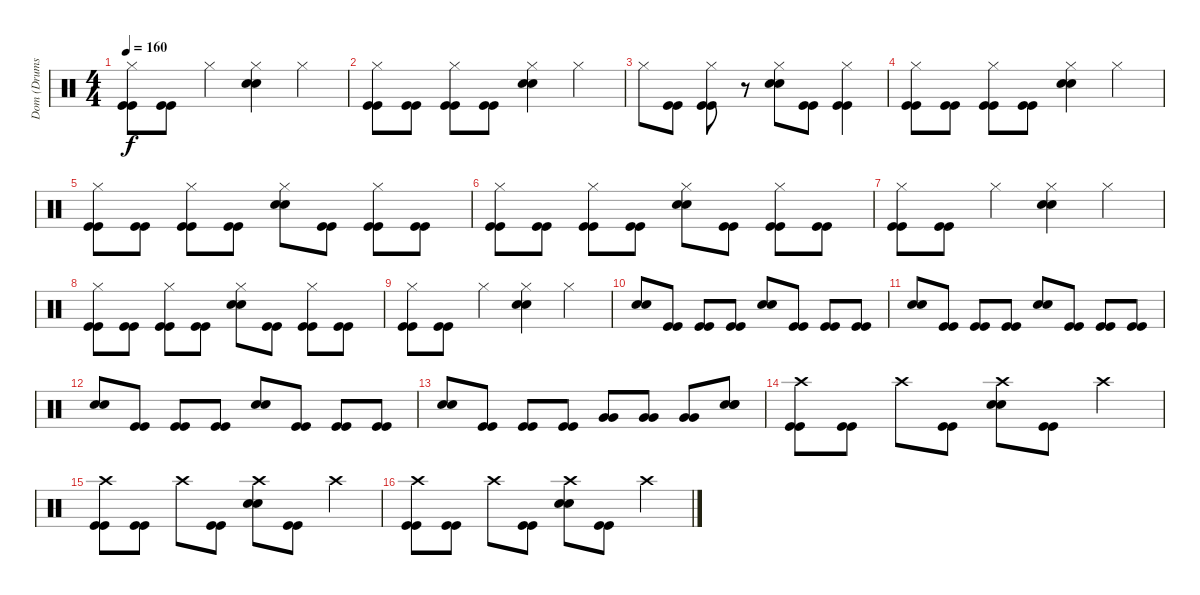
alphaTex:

\track ("Dom (Drums)" "Dom (Drums") {instrument percussion}
\staff {score}
\articulation defaults
\ts (4 4)
\tempo 160
\clef neutral
\ks c
("Hi-Hat (closed)" "Kick (hit)" "Kick (hit)").8{dy f} ("Kick (hit)" "Kick (hit)").8 "Hi-Hat (closed)".4 ("Hi-Hat (closed)" "Snare (hit) 2" "Snare (hit) 2").4 "Hi-Hat (closed)".4 |
("Hi-Hat (closed)" "Kick (hit)" "Kick (hit)").8 ("Kick (hit)" "Kick (hit)").8 ("Hi-Hat (closed)" "Kick (hit)" "Kick (hit)").8 ("Kick (hit)" "Kick (hit)").8 ("Hi-Hat (closed)" "Snare (hit) 2" "Snare (hit) 2").4 "Hi-Hat (closed)".4 |
"Hi-Hat (closed)".8 ("Kick (hit)" "Kick (hit)").8 ("Hi-Hat (closed)" "Kick (hit)" "Kick (hit)").8 r.8 ("Hi-Hat (closed)" "Snare (hit) 2" "Snare (hit) 2").8 ("Kick (hit)" "Kick (hit)").8 ("Hi-Hat (closed)" "Kick (hit)" "Kick (hit)").4 |
("Hi-Hat (closed)" "Kick (hit)" "Kick (hit)").8 ("Kick (hit)" "Kick (hit)").8 ("Hi-Hat (closed)" "Kick (hit)" "Kick (hit)").8 ("Kick (hit)" "Kick (hit)").8 ("Hi-Hat (closed)" "Snare (hit) 2" "Snare (hit) 2").4 "Hi-Hat (closed)".4 |
("Hi-Hat (closed)" "Kick (hit)" "Kick (hit)").8 ("Kick (hit)" "Kick (hit)").8 ("Hi-Hat (closed)" "Kick (hit)" "Kick (hit)").8 ("Kick (hit)" "Kick (hit)").8 ("Hi-Hat (closed)" "Snare (hit) 2" "Snare (hit) 2").8 ("Kick (hit)" "Kick (hit)").8 ("Hi-Hat (closed)" "Kick (hit)" "Kick (hit)").8 ("Kick (hit)" "Kick (hit)").8 |
("Hi-Hat (closed)" "Kick (hit)" "Kick (hit)").8 ("Kick (hit)" "Kick (hit)").8 ("Hi-Hat (closed)" "Kick (hit)" "Kick (hit)").8 ("Kick (hit)" "Kick (hit)").8 ("Hi-Hat (closed)" "Snare (hit) 2" "Snare (hit) 2").8 ("Kick (hit)" "Kick (hit)").8 ("Hi-Hat (closed)" "Kick (hit)" "Kick (hit)").8 ("Kick (hit)" "Kick (hit)").8 |
("Hi-Hat (closed)" "Kick (hit)" "Kick (hit)").8 ("Kick (hit)" "Kick (hit)").8 "Hi-Hat (closed)".4 ("Hi-Hat (closed)" "Snare (hit) 2" "Snare (hit) 2").4 "Hi-Hat (closed)".4 |
("Hi-Hat (closed)" "Kick (hit)" "Kick (hit)").8 ("Kick (hit)" "Kick (hit)").8 ("Hi-Hat (closed)" "Kick (hit)" "Kick (hit)").8 ("Kick (hit)" "Kick (hit)").8 ("Hi-Hat (closed)" "Snare (hit) 2" "Snare (hit) 2").8 ("Kick (hit)" "Kick (hit)").8 ("Hi-Hat (closed)" "Kick (hit)" "Kick (hit)").8 ("Kick (hit)" "Kick (hit)").8 |
("Hi-Hat (closed)" "Kick (hit)" "Kick (hit)").8 ("Kick (hit)" "Kick (hit)").8 "Hi-Hat (closed)".4 ("Hi-Hat (closed)" "Snare (hit) 2" "Snare (hit) 2").4 "Hi-Hat (closed)".4 |
("Snare (hit) 2" "Snare (hit) 2").8 ("Kick (hit)" "Kick (hit)").8 ("Kick (hit)" "Kick (hit)").8 ("Kick (hit)" "Kick (hit)").8 ("Snare (hit) 2" "Snare (hit) 2").8 ("Kick (hit)" "Kick (hit)").8 ("Kick (hit)" "Kick (hit)").8 ("Kick (hit)" "Kick (hit)").8 |
("Snare (hit) 2" "Snare (hit) 2").8 ("Kick (hit)" "Kick (hit)").8 ("Kick (hit)" "Kick (hit)").8 ("Kick (hit)" "Kick (hit)").8 ("Snare (hit) 2" "Snare (hit) 2").8 ("Kick (hit)" "Kick (hit)").8 ("Kick (hit)" "Kick (hit)").8 ("Kick (hit)" "Kick (hit)").8 |
("Snare (hit) 2" "Snare (hit) 2").8 ("Kick (hit)" "Kick (hit)").8 ("Kick (hit)" "Kick (hit)").8 ("Kick (hit)" "Kick (hit)").8 ("Snare (hit) 2" "Snare (hit) 2").8 ("Kick (hit)" "Kick (hit)").8 ("Kick (hit)" "Kick (hit)").8 ("Kick (hit)" "Kick (hit)").8 |
("Snare (hit) 2" "Snare (hit) 2").8 ("Kick (hit)" "Kick (hit)").8 ("Kick (hit)" "Kick (hit)").8 ("Kick (hit)" "Kick (hit)").8 ("Very Low Tom (hit)" "Very Low Tom (hit)").8 ("Very Low Tom (hit)" "Very Low Tom (hit)").8 ("Very Low Tom (hit)" "Very Low Tom (hit)").8 ("Snare (hit) 2" "Snare (hit) 2" "Snare (hit) 2").8 |
("Crash high (hit)" "Kick (hit)" "Kick (hit)").8 ("Kick (hit)" "Kick (hit)").8 "Crash high (hit)".8 ("Kick (hit)" "Kick (hit)").8 ("Crash high (hit)" "Snare (hit) 2" "Snare (hit) 2").8 ("Kick (hit)" "Kick (hit)").8 "Crash high (hit)".4 |
("Crash high (hit)" "Kick (hit)" "Kick (hit)").8 ("Kick (hit)" "Kick (hit)").8 "Crash high (hit)".8 ("Kick (hit)" "Kick (hit)").8 ("Crash high (hit)" "Snare (hit) 2" "Snare (hit) 2").8 ("Kick (hit)" "Kick (hit)").8 "Crash high (hit)".4 |
("Crash high (hit)" "Kick (hit)" "Kick (hit)").8 ("Kick (hit)" "Kick (hit)").8 "Crash high (hit)".8 ("Kick (hit)" "Kick (hit)").8 ("Crash high (hit)" "Snare (hit) 2" "Snare (hit) 2").8 ("Kick (hit)" "Kick (hit)").8 "Crash high (hit)".4
